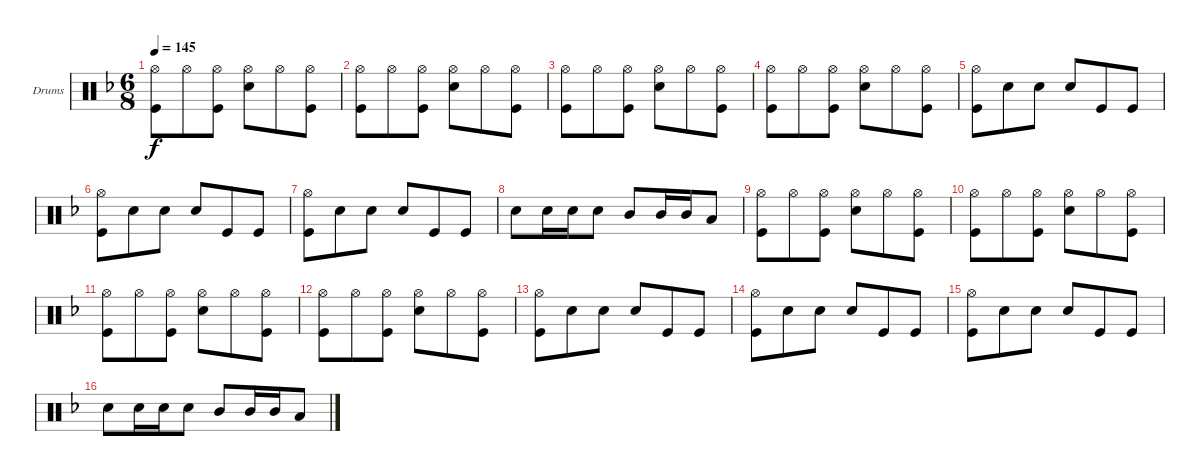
\bracketExtendMode groupsimilarinstruments
\firstSystemTrackNameOrientation horizontal
\otherSystemsTrackNameOrientation horizontal
\track ("Drumkit" "Drums") {instrument percussion}
\staff {score}
\articulation defaults
\ts (6 8)
\tempo 145
\clef neutral
\ks f
("Hi-Hat (open)" "Kick (hit)").8{dy f} "Hi-Hat (open)".8 ("Hi-Hat (open)" "Kick (hit)").8 ("Hi-Hat (open)" "Snare (hit) 2").8 "Hi-Hat (open)".8 ("Hi-Hat (open)" "Kick (hit)").8 |
("Hi-Hat (open)" "Kick (hit)").8 "Hi-Hat (open)".8 ("Hi-Hat (open)" "Kick (hit)").8 ("Hi-Hat (open)" "Snare (hit) 2").8 "Hi-Hat (open)".8 ("Hi-Hat (open)" "Kick (hit)").8 |
("Hi-Hat (open)" "Kick (hit)").8 "Hi-Hat (open)".8 ("Hi-Hat (open)" "Kick (hit)").8 ("Hi-Hat (open)" "Snare (hit) 2").8 "Hi-Hat (open)".8 ("Hi-Hat (open)" "Kick (hit)").8 |
("Hi-Hat (open)" "Kick (hit)").8 "Hi-Hat (open)".8 ("Hi-Hat (open)" "Kick (hit)").8 ("Hi-Hat (open)" "Snare (hit) 2").8 "Hi-Hat (open)".8 ("Hi-Hat (open)" "Kick (hit)").8 |
("Hi-Hat (open)" "Kick (hit)").8 "Snare (hit) 2".8 "Snare (hit) 2".8 "Snare (hit) 2".8 "Kick (hit)".8 "Kick (hit)".8 |
("Hi-Hat (open)" "Kick (hit)").8 "Snare (hit) 2".8 "Snare (hit) 2".8 "Snare (hit) 2".8 "Kick (hit)".8 "Kick (hit)".8 |
("Hi-Hat (open)" "Kick (hit)").8 "Snare (hit) 2".8 "Snare (hit) 2".8 "Snare (hit) 2".8 "Kick (hit)".8 "Kick (hit)".8 |
"Snare (hit) 2".8 "Snare (hit) 2".16 "Snare (hit) 2".16 "Snare (hit) 2".8 "Mid Tom (hit)".8 "Mid Tom (hit)".16 "Mid Tom (hit)".16 "Low Tom (hit)".8 |
("Hi-Hat (open)" "Kick (hit)").8 "Hi-Hat (open)".8 ("Hi-Hat (open)" "Kick (hit)").8 ("Hi-Hat (open)" "Snare (hit) 2").8 "Hi-Hat (open)".8 ("Hi-Hat (open)" "Kick (hit)").8 |
("Hi-Hat (open)" "Kick (hit)").8 "Hi-Hat (open)".8 ("Hi-Hat (open)" "Kick (hit)").8 ("Hi-Hat (open)" "Snare (hit) 2").8 "Hi-Hat (open)".8 ("Hi-Hat (open)" "Kick (hit)").8 |
("Hi-Hat (open)" "Kick (hit)").8 "Hi-Hat (open)".8 ("Hi-Hat (open)" "Kick (hit)").8 ("Hi-Hat (open)" "Snare (hit) 2").8 "Hi-Hat (open)".8 ("Hi-Hat (open)" "Kick (hit)").8 |
("Hi-Hat (open)" "Kick (hit)").8 "Hi-Hat (open)".8 ("Hi-Hat (open)" "Kick (hit)").8 ("Hi-Hat (open)" "Snare (hit) 2").8 "Hi-Hat (open)".8 ("Hi-Hat (open)" "Kick (hit)").8 |
("Hi-Hat (open)" "Kick (hit)").8 "Snare (hit) 2".8 "Snare (hit) 2".8 "Snare (hit) 2".8 "Kick (hit)".8 "Kick (hit)".8 |
("Hi-Hat (open)" "Kick (hit)").8 "Snare (hit) 2".8 "Snare (hit) 2".8 "Snare (hit) 2".8 "Kick (hit)".8 "Kick (hit)".8 |
("Hi-Hat (open)" "Kick (hit)").8 "Snare (hit) 2".8 "Snare (hit) 2".8 "Snare (hit) 2".8 "Kick (hit)".8 "Kick (hit)".8 |
"Snare (hit) 2".8 "Snare (hit) 2".16 "Snare (hit) 2".16 "Snare (hit) 2".8 "Mid Tom (hit)".8 "Mid Tom (hit)".16 "Mid Tom (hit)".16 "Low Tom (hit)".8
